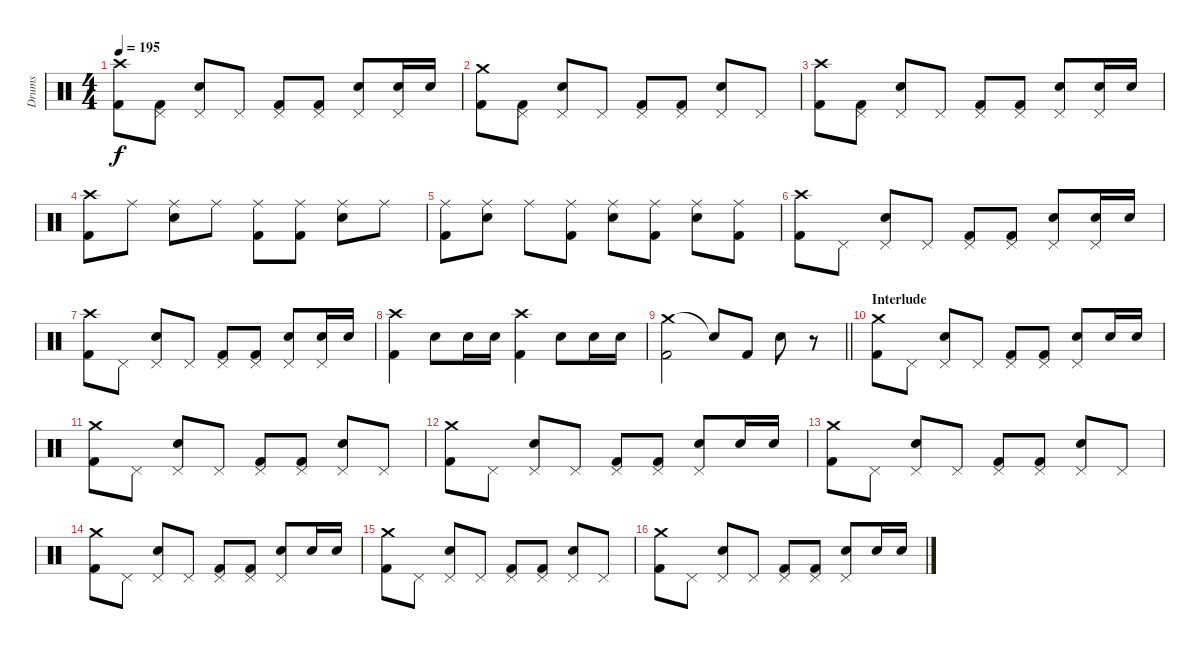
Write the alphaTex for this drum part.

\track ("Drums" "Drums") {instrument percussion}
\staff {score}
\articulation defaults
\ts (4 4)
\tempo 195
\clef neutral
\ks c
("Crash high (hit)" "Kick (hit) 2").8{dy f} ("Pedal Hi-Hat (hit)" "Kick (hit) 2").8 ("Pedal Hi-Hat (hit)" "Electric Snare (hit)").8 "Pedal Hi-Hat (hit)".8 ("Pedal Hi-Hat (hit)" "Kick (hit) 2").8 ("Pedal Hi-Hat (hit)" "Kick (hit) 2").8 ("Pedal Hi-Hat (hit)" "Electric Snare (hit)").8 ("Pedal Hi-Hat (hit)" "Electric Snare (hit)").16 "Electric Snare (hit)".16 |
("Crash medium (hit)" "Kick (hit) 2").8 ("Pedal Hi-Hat (hit)" "Kick (hit) 2").8 ("Pedal Hi-Hat (hit)" "Electric Snare (hit)").8 "Pedal Hi-Hat (hit)".8 ("Pedal Hi-Hat (hit)" "Kick (hit) 2").8 ("Pedal Hi-Hat (hit)" "Kick (hit) 2").8 ("Pedal Hi-Hat (hit)" "Electric Snare (hit)").8 "Pedal Hi-Hat (hit)".8 |
("Crash high (hit)" "Kick (hit) 2").8 ("Pedal Hi-Hat (hit)" "Kick (hit) 2").8 ("Pedal Hi-Hat (hit)" "Electric Snare (hit)").8 "Pedal Hi-Hat (hit)".8 ("Pedal Hi-Hat (hit)" "Kick (hit) 2").8 ("Pedal Hi-Hat (hit)" "Kick (hit) 2").8 ("Pedal Hi-Hat (hit)" "Electric Snare (hit)").8 ("Pedal Hi-Hat (hit)" "Electric Snare (hit)").16 "Electric Snare (hit)".16 |
("Crash high (hit)" "Kick (hit) 2").8 "Ride (middle)".8 ("Ride (middle)" "Electric Snare (hit)").8 "Ride (middle)".8 ("Ride (middle)" "Kick (hit) 2").8 ("Ride (middle)" "Kick (hit) 2").8 ("Ride (middle)" "Electric Snare (hit)").8 "Ride (middle)".8 |
("Ride (middle)" "Kick (hit) 2").8 ("Ride (middle)" "Electric Snare (hit)").8 "Ride (middle)".8 ("Ride (middle)" "Kick (hit) 2").8 ("Ride (middle)" "Electric Snare (hit)").8 ("Ride (middle)" "Kick (hit) 2").8 ("Ride (middle)" "Electric Snare (hit)").8 ("Ride (middle)" "Kick (hit) 2").8 |
("Crash high (hit)" "Kick (hit) 2").8 "Pedal Hi-Hat (hit)".8 ("Pedal Hi-Hat (hit)" "Electric Snare (hit)").8 "Pedal Hi-Hat (hit)".8 ("Pedal Hi-Hat (hit)" "Kick (hit) 2").8 ("Pedal Hi-Hat (hit)" "Kick (hit) 2").8 ("Pedal Hi-Hat (hit)" "Electric Snare (hit)").8 ("Pedal Hi-Hat (hit)" "Electric Snare (hit)").16 "Electric Snare (hit)".16 |
("Crash high (hit)" "Kick (hit) 2").8 "Pedal Hi-Hat (hit)".8 ("Pedal Hi-Hat (hit)" "Electric Snare (hit)").8 "Pedal Hi-Hat (hit)".8 ("Pedal Hi-Hat (hit)" "Kick (hit) 2").8 ("Pedal Hi-Hat (hit)" "Kick (hit) 2").8 ("Pedal Hi-Hat (hit)" "Electric Snare (hit)").8 ("Pedal Hi-Hat (hit)" "Electric Snare (hit)").16 "Electric Snare (hit)".16 |
("Crash high (hit)" "Kick (hit) 2").4 "Electric Snare (hit)".8 "Electric Snare (hit)".16 "Electric Snare (hit)".16 ("Crash high (hit)" "Kick (hit) 2").4 "Electric Snare (hit)".8 "Electric Snare (hit)".16 "Electric Snare (hit)".16 |
\barLineRight lightlight
("Crash medium (hit)" "Kick (hit) 2").2 "Snare (hit)"{t}.8 "Kick (hit) 2".8 "Electric Snare (hit)".8 r.8 |
\section ("" "Interlude")
("Crash medium (hit)" "Kick (hit) 2").8 "Pedal Hi-Hat (hit)".8 ("Pedal Hi-Hat (hit)" "Electric Snare (hit)").8 "Pedal Hi-Hat (hit)".8 ("Pedal Hi-Hat (hit)" "Kick (hit) 2").8 ("Pedal Hi-Hat (hit)" "Kick (hit) 2").8 ("Pedal Hi-Hat (hit)" "Electric Snare (hit)").8 "Electric Snare (hit)".16 "Electric Snare (hit)".16 |
("Crash medium (hit)" "Kick (hit) 2").8 "Pedal Hi-Hat (hit)".8 ("Pedal Hi-Hat (hit)" "Electric Snare (hit)").8 "Pedal Hi-Hat (hit)".8 ("Pedal Hi-Hat (hit)" "Kick (hit) 2").8 ("Pedal Hi-Hat (hit)" "Kick (hit) 2").8 ("Pedal Hi-Hat (hit)" "Electric Snare (hit)").8 "Pedal Hi-Hat (hit)".8 |
("Crash medium (hit)" "Kick (hit) 2").8 "Pedal Hi-Hat (hit)".8 ("Pedal Hi-Hat (hit)" "Electric Snare (hit)").8 "Pedal Hi-Hat (hit)".8 ("Pedal Hi-Hat (hit)" "Kick (hit) 2").8 ("Pedal Hi-Hat (hit)" "Kick (hit) 2").8 ("Pedal Hi-Hat (hit)" "Electric Snare (hit)").8 "Electric Snare (hit)".16 "Electric Snare (hit)".16 |
("Crash medium (hit)" "Kick (hit) 2").8 "Pedal Hi-Hat (hit)".8 ("Pedal Hi-Hat (hit)" "Electric Snare (hit)").8 "Pedal Hi-Hat (hit)".8 ("Pedal Hi-Hat (hit)" "Kick (hit) 2").8 ("Pedal Hi-Hat (hit)" "Kick (hit) 2").8 ("Pedal Hi-Hat (hit)" "Electric Snare (hit)").8 "Pedal Hi-Hat (hit)".8 |
("Crash medium (hit)" "Kick (hit) 2").8 "Pedal Hi-Hat (hit)".8 ("Pedal Hi-Hat (hit)" "Electric Snare (hit)").8 "Pedal Hi-Hat (hit)".8 ("Pedal Hi-Hat (hit)" "Kick (hit) 2").8 ("Pedal Hi-Hat (hit)" "Kick (hit) 2").8 ("Pedal Hi-Hat (hit)" "Electric Snare (hit)").8 "Electric Snare (hit)".16 "Electric Snare (hit)".16 |
("Crash medium (hit)" "Kick (hit) 2").8 "Pedal Hi-Hat (hit)".8 ("Pedal Hi-Hat (hit)" "Electric Snare (hit)").8 "Pedal Hi-Hat (hit)".8 ("Pedal Hi-Hat (hit)" "Kick (hit) 2").8 ("Pedal Hi-Hat (hit)" "Kick (hit) 2").8 ("Pedal Hi-Hat (hit)" "Electric Snare (hit)").8 "Pedal Hi-Hat (hit)".8 |
("Crash medium (hit)" "Kick (hit) 2").8 "Pedal Hi-Hat (hit)".8 ("Pedal Hi-Hat (hit)" "Electric Snare (hit)").8 "Pedal Hi-Hat (hit)".8 ("Pedal Hi-Hat (hit)" "Kick (hit) 2").8 ("Pedal Hi-Hat (hit)" "Kick (hit) 2").8 ("Pedal Hi-Hat (hit)" "Electric Snare (hit)").8 "Electric Snare (hit)".16 "Electric Snare (hit)".16
